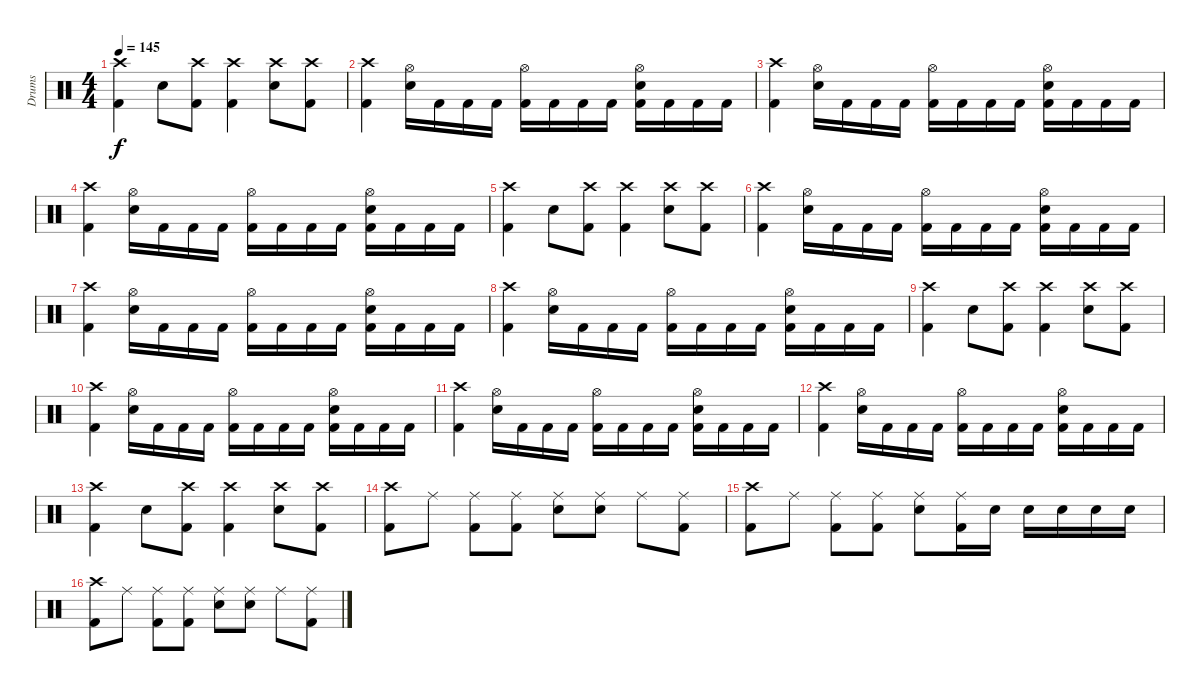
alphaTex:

\track ("Drums" "Drums") {instrument percussion}
\staff {score}
\articulation defaults
\ts (4 4)
\tempo 145
\clef neutral
\ks c
("Crash high (hit)" "Kick (hit) 2").4{dy f} "Snare (hit) 2".8 ("Crash high (hit)" "Kick (hit) 2").8 ("Crash high (hit)" "Kick (hit) 2").4 ("Crash high (hit)" "Snare (hit) 2").8 ("Crash high (hit)" "Kick (hit) 2").8 |
("Crash high (hit)" "Kick (hit) 2").4 ("Hi-Hat (open)" "Snare (hit) 2").16 "Kick (hit) 2".16 "Kick (hit) 2".16 "Kick (hit) 2".16 ("Hi-Hat (open)" "Kick (hit) 2").16 "Kick (hit) 2".16 "Kick (hit) 2".16 "Kick (hit) 2".16 ("Hi-Hat (open)" "Snare (hit) 2" "Kick (hit) 2").16 "Kick (hit) 2".16 "Kick (hit) 2".16 "Kick (hit) 2".16 |
("Crash high (hit)" "Kick (hit) 2").4 ("Hi-Hat (open)" "Snare (hit) 2").16 "Kick (hit) 2".16 "Kick (hit) 2".16 "Kick (hit) 2".16 ("Hi-Hat (open)" "Kick (hit) 2").16 "Kick (hit) 2".16 "Kick (hit) 2".16 "Kick (hit) 2".16 ("Hi-Hat (open)" "Snare (hit) 2" "Kick (hit) 2").16 "Kick (hit) 2".16 "Kick (hit) 2".16 "Kick (hit) 2".16 |
("Crash high (hit)" "Kick (hit) 2").4 ("Hi-Hat (open)" "Snare (hit) 2").16 "Kick (hit) 2".16 "Kick (hit) 2".16 "Kick (hit) 2".16 ("Hi-Hat (open)" "Kick (hit) 2").16 "Kick (hit) 2".16 "Kick (hit) 2".16 "Kick (hit) 2".16 ("Hi-Hat (open)" "Snare (hit) 2" "Kick (hit) 2").16 "Kick (hit) 2".16 "Kick (hit) 2".16 "Kick (hit) 2".16 |
("Crash high (hit)" "Kick (hit) 2").4 "Snare (hit) 2".8 ("Crash high (hit)" "Kick (hit) 2").8 ("Crash high (hit)" "Kick (hit) 2").4 ("Crash high (hit)" "Snare (hit) 2").8 ("Crash high (hit)" "Kick (hit) 2").8 |
("Crash high (hit)" "Kick (hit) 2").4 ("Hi-Hat (open)" "Snare (hit) 2").16 "Kick (hit) 2".16 "Kick (hit) 2".16 "Kick (hit) 2".16 ("Hi-Hat (open)" "Kick (hit) 2").16 "Kick (hit) 2".16 "Kick (hit) 2".16 "Kick (hit) 2".16 ("Hi-Hat (open)" "Snare (hit) 2" "Kick (hit) 2").16 "Kick (hit) 2".16 "Kick (hit) 2".16 "Kick (hit) 2".16 |
("Crash high (hit)" "Kick (hit) 2").4 ("Hi-Hat (open)" "Snare (hit) 2").16 "Kick (hit) 2".16 "Kick (hit) 2".16 "Kick (hit) 2".16 ("Hi-Hat (open)" "Kick (hit) 2").16 "Kick (hit) 2".16 "Kick (hit) 2".16 "Kick (hit) 2".16 ("Hi-Hat (open)" "Snare (hit) 2" "Kick (hit) 2").16 "Kick (hit) 2".16 "Kick (hit) 2".16 "Kick (hit) 2".16 |
("Crash high (hit)" "Kick (hit) 2").4 ("Hi-Hat (open)" "Snare (hit) 2").16 "Kick (hit) 2".16 "Kick (hit) 2".16 "Kick (hit) 2".16 ("Hi-Hat (open)" "Kick (hit) 2").16 "Kick (hit) 2".16 "Kick (hit) 2".16 "Kick (hit) 2".16 ("Hi-Hat (open)" "Snare (hit) 2" "Kick (hit) 2").16 "Kick (hit) 2".16 "Kick (hit) 2".16 "Kick (hit) 2".16 |
("Crash high (hit)" "Kick (hit) 2").4 "Snare (hit) 2".8 ("Crash high (hit)" "Kick (hit) 2").8 ("Crash high (hit)" "Kick (hit) 2").4 ("Crash high (hit)" "Snare (hit) 2").8 ("Crash high (hit)" "Kick (hit) 2").8 |
("Crash high (hit)" "Kick (hit) 2").4 ("Hi-Hat (open)" "Snare (hit) 2").16 "Kick (hit) 2".16 "Kick (hit) 2".16 "Kick (hit) 2".16 ("Hi-Hat (open)" "Kick (hit) 2").16 "Kick (hit) 2".16 "Kick (hit) 2".16 "Kick (hit) 2".16 ("Hi-Hat (open)" "Snare (hit) 2" "Kick (hit) 2").16 "Kick (hit) 2".16 "Kick (hit) 2".16 "Kick (hit) 2".16 |
("Crash high (hit)" "Kick (hit) 2").4 ("Hi-Hat (open)" "Snare (hit) 2").16 "Kick (hit) 2".16 "Kick (hit) 2".16 "Kick (hit) 2".16 ("Hi-Hat (open)" "Kick (hit) 2").16 "Kick (hit) 2".16 "Kick (hit) 2".16 "Kick (hit) 2".16 ("Hi-Hat (open)" "Snare (hit) 2" "Kick (hit) 2").16 "Kick (hit) 2".16 "Kick (hit) 2".16 "Kick (hit) 2".16 |
("Crash high (hit)" "Kick (hit) 2").4 ("Hi-Hat (open)" "Snare (hit) 2").16 "Kick (hit) 2".16 "Kick (hit) 2".16 "Kick (hit) 2".16 ("Hi-Hat (open)" "Kick (hit) 2").16 "Kick (hit) 2".16 "Kick (hit) 2".16 "Kick (hit) 2".16 ("Hi-Hat (open)" "Snare (hit) 2" "Kick (hit) 2").16 "Kick (hit) 2".16 "Kick (hit) 2".16 "Kick (hit) 2".16 |
("Crash high (hit)" "Kick (hit) 2").4 "Snare (hit) 2".8 ("Crash high (hit)" "Kick (hit) 2").8 ("Crash high (hit)" "Kick (hit) 2").4 ("Crash high (hit)" "Snare (hit) 2").8 ("Crash high (hit)" "Kick (hit) 2").8 |
("Crash high (hit)" "Kick (hit) 2").8 "Ride (middle)".8 ("Ride (middle)" "Kick (hit) 2").8 ("Ride (middle)" "Kick (hit) 2").8 ("Ride (middle)" "Snare (hit) 2").8 ("Ride (middle)" "Snare (hit) 2").8 "Ride (middle)".8 ("Ride (middle)" "Kick (hit) 2").8 |
("Crash high (hit)" "Kick (hit) 2").8 "Ride (middle)".8 ("Ride (middle)" "Kick (hit) 2").8 ("Ride (middle)" "Kick (hit) 2").8 ("Ride (middle)" "Snare (hit) 2").8 ("Ride (middle)" "Kick (hit) 2").16 "Snare (hit) 2".16 "Snare (hit) 2".16 "Snare (hit) 2".16 "Snare (hit) 2".16 "Snare (hit) 2".16 |
("Crash high (hit)" "Kick (hit) 2").8 "Ride (middle)".8 ("Ride (middle)" "Kick (hit) 2").8 ("Ride (middle)" "Kick (hit) 2").8 ("Ride (middle)" "Snare (hit) 2").8 ("Ride (middle)" "Snare (hit) 2").8 "Ride (middle)".8 ("Ride (middle)" "Kick (hit) 2").8
